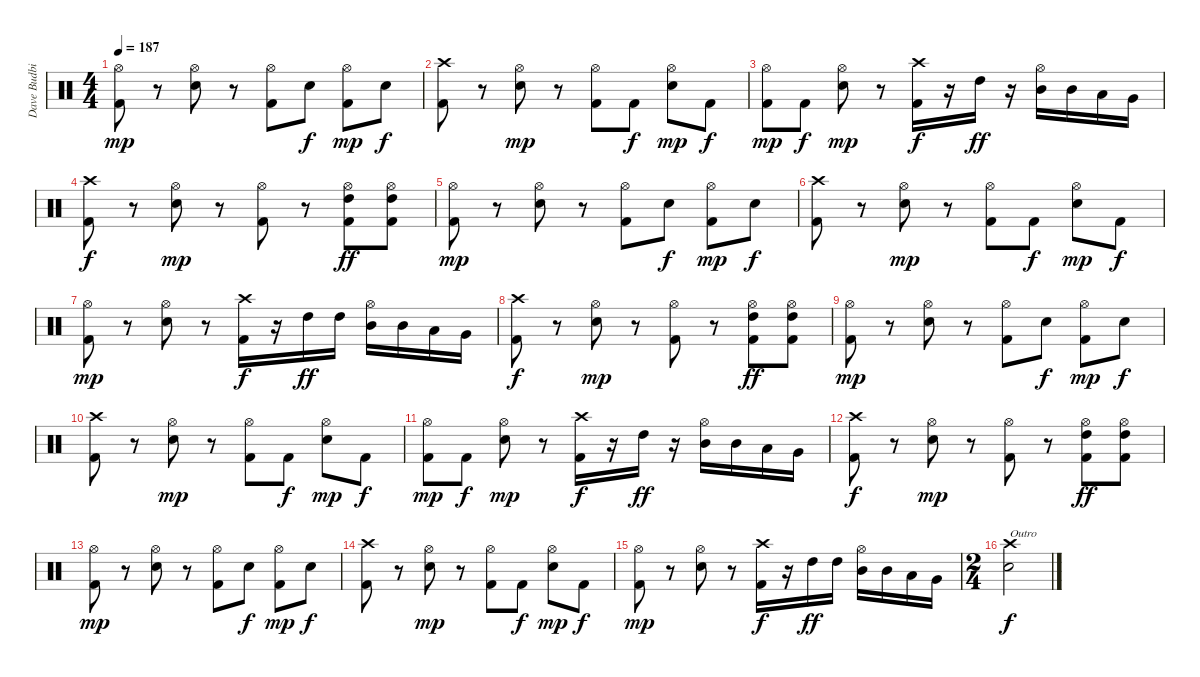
\track ("Dave Budbill" "Dave Budbi") {instrument percussion}
\staff {score}
\articulation defaults
\ts (4 4)
\tempo 187
\clef neutral
\ks c
("Hi-Hat (open)" "Kick (hit) 2").8{dy mp} r.8 ("Hi-Hat (open)" "Snare (hit) 2").8 r.8 ("Hi-Hat (open)" "Kick (hit) 2").8 "Snare (hit) 2".8{dy f} ("Hi-Hat (open)" "Kick (hit) 2").8{dy mp} "Snare (hit) 2".8{dy f} |
("Crash high (hit)" "Kick (hit) 2").8 r.8 ("Hi-Hat (open)" "Snare (hit) 2").8{dy mp} r.8 ("Hi-Hat (open)" "Kick (hit) 2").8 "Kick (hit) 2".8{dy f} ("Hi-Hat (open)" "Snare (hit) 2").8{dy mp} "Kick (hit) 2".8{dy f} |
("Hi-Hat (open)" "Kick (hit) 2").8{dy mp} "Kick (hit) 2".8{dy f} ("Hi-Hat (open)" "Snare (hit) 2").8{dy mp} r.8 ("Crash high (hit)" "Kick (hit) 2").16{dy f} r.16 "High Tom (hit)".16{dy ff} r.16 ("Hi-Hat (open)" "Mid Tom (hit)").16 "Mid Tom (hit)".16 "Low Tom (hit)".16 "Very Low Tom (hit)".16 |
("Crash high (hit)" "Kick (hit) 2").8{dy f} r.8 ("Hi-Hat (open)" "Snare (hit) 2").8{dy mp} r.8 ("Hi-Hat (open)" "Kick (hit) 2").8 r.8 ("Hi-Hat (open)" "High Tom (hit)" "Kick (hit) 2").8{dy ff} ("Hi-Hat (open)" "High Tom (hit)" "Kick (hit) 2").8 |
("Hi-Hat (open)" "Kick (hit) 2").8{dy mp} r.8 ("Hi-Hat (open)" "Snare (hit) 2").8 r.8 ("Hi-Hat (open)" "Kick (hit) 2").8 "Snare (hit) 2".8{dy f} ("Hi-Hat (open)" "Kick (hit) 2").8{dy mp} "Snare (hit) 2".8{dy f} |
("Crash high (hit)" "Kick (hit) 2").8 r.8 ("Hi-Hat (open)" "Snare (hit) 2").8{dy mp} r.8 ("Hi-Hat (open)" "Kick (hit) 2").8 "Kick (hit) 2".8{dy f} ("Hi-Hat (open)" "Snare (hit) 2").8{dy mp} "Kick (hit) 2".8{dy f} |
("Hi-Hat (open)" "Kick (hit) 2").8{dy mp} r.8 ("Hi-Hat (open)" "Snare (hit) 2").8 r.8 ("Crash high (hit)" "Kick (hit) 2").16{dy f} r.16 "High Tom (hit)".16{dy ff} "High Tom (hit)".16 ("Hi-Hat (open)" "Mid Tom (hit)").16 "Mid Tom (hit)".16 "Low Tom (hit)".16 "Very Low Tom (hit)".16 |
("Crash high (hit)" "Kick (hit) 2").8{dy f} r.8 ("Hi-Hat (open)" "Snare (hit) 2").8{dy mp} r.8 ("Hi-Hat (open)" "Kick (hit) 2").8 r.8 ("Hi-Hat (open)" "High Tom (hit)" "Kick (hit) 2").8{dy ff} ("Hi-Hat (open)" "High Tom (hit)" "Kick (hit) 2").8 |
("Hi-Hat (open)" "Kick (hit) 2").8{dy mp} r.8 ("Hi-Hat (open)" "Snare (hit) 2").8 r.8 ("Hi-Hat (open)" "Kick (hit) 2").8 "Snare (hit) 2".8{dy f} ("Hi-Hat (open)" "Kick (hit) 2").8{dy mp} "Snare (hit) 2".8{dy f} |
("Crash high (hit)" "Kick (hit) 2").8 r.8 ("Hi-Hat (open)" "Snare (hit) 2").8{dy mp} r.8 ("Hi-Hat (open)" "Kick (hit) 2").8 "Kick (hit) 2".8{dy f} ("Hi-Hat (open)" "Snare (hit) 2").8{dy mp} "Kick (hit) 2".8{dy f} |
("Hi-Hat (open)" "Kick (hit) 2").8{dy mp} "Kick (hit) 2".8{dy f} ("Hi-Hat (open)" "Snare (hit) 2").8{dy mp} r.8 ("Crash high (hit)" "Kick (hit) 2").16{dy f} r.16 "High Tom (hit)".16{dy ff} r.16 ("Hi-Hat (open)" "Mid Tom (hit)").16 "Mid Tom (hit)".16 "Low Tom (hit)".16 "Very Low Tom (hit)".16 |
("Crash high (hit)" "Kick (hit) 2").8{dy f} r.8 ("Hi-Hat (open)" "Snare (hit) 2").8{dy mp} r.8 ("Hi-Hat (open)" "Kick (hit) 2").8 r.8 ("Hi-Hat (open)" "High Tom (hit)" "Kick (hit) 2").8{dy ff} ("Hi-Hat (open)" "High Tom (hit)" "Kick (hit) 2").8 |
("Hi-Hat (open)" "Kick (hit) 2").8{dy mp} r.8 ("Hi-Hat (open)" "Snare (hit) 2").8 r.8 ("Hi-Hat (open)" "Kick (hit) 2").8 "Snare (hit) 2".8{dy f} ("Hi-Hat (open)" "Kick (hit) 2").8{dy mp} "Snare (hit) 2".8{dy f} |
("Crash high (hit)" "Kick (hit) 2").8 r.8 ("Hi-Hat (open)" "Snare (hit) 2").8{dy mp} r.8 ("Hi-Hat (open)" "Kick (hit) 2").8 "Kick (hit) 2".8{dy f} ("Hi-Hat (open)" "Snare (hit) 2").8{dy mp} "Kick (hit) 2".8{dy f} |
("Hi-Hat (open)" "Kick (hit) 2").8{dy mp} r.8 ("Hi-Hat (open)" "Snare (hit) 2").8 r.8 ("Crash high (hit)" "Kick (hit) 2").16{dy f} r.16 "High Tom (hit)".16{dy ff} "High Tom (hit)".16 ("Hi-Hat (open)" "Mid Tom (hit)").16 "Mid Tom (hit)".16 "Low Tom (hit)".16 "Very Low Tom (hit)".16 |
\ts (2 4)
("Crash high (hit)" "Snare (hit) 2").2{txt "Outro" dy f}
